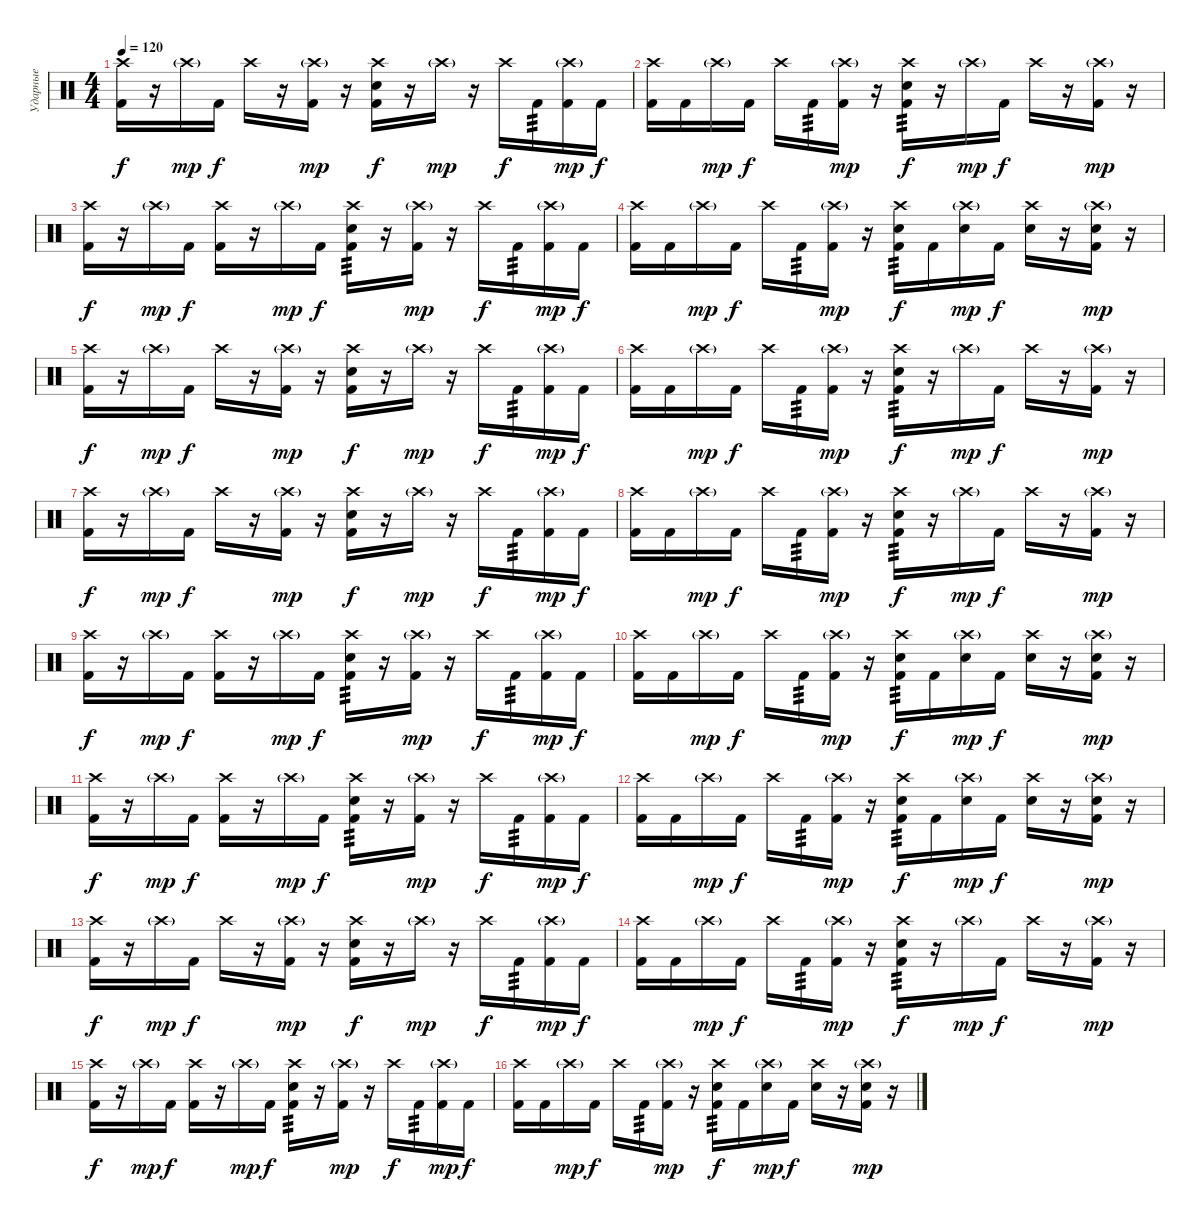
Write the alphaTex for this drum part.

\track ("Ударные" "Ударные") {instrument percussion}
\staff {score}
\articulation defaults
\ts (4 4)
\tempo 120
\clef neutral
\ks c
("Crash high (hit)" "Kick (hit) 2").16{dy f} r.16 "Crash high (hit)"{g}.16{dy mp} "Kick (hit) 2".16{dy f} "Crash high (hit)".16 r.16 ("Crash high (hit)"{g} "Kick (hit) 2").16{dy mp} r.16 ("Crash high (hit)" "Snare (hit) 2" "Kick (hit) 2").16{dy f} r.16 "Crash high (hit)"{g}.16{dy mp} r.16 "Crash high (hit)".16{dy f} "Kick (hit) 2".16{tp 3} ("Crash high (hit)"{g} "Kick (hit) 2").16{dy mp} "Kick (hit) 2".16{dy f} |
("Crash high (hit)" "Kick (hit) 2").16 "Kick (hit) 2".16 "Crash high (hit)"{g}.16{dy mp} "Kick (hit) 2".16{dy f} "Crash high (hit)".16 "Kick (hit) 2".16{tp 3} ("Crash high (hit)"{g} "Kick (hit) 2").16{dy mp} r.16 ("Crash high (hit)" "Snare (hit) 2" "Kick (hit) 2").16{tp 3 dy f} r.16 "Crash high (hit)"{g}.16{dy mp} "Kick (hit) 2".16{dy f} "Crash high (hit)".16 r.16 ("Crash high (hit)"{g} "Kick (hit) 2").16{dy mp} r.16 |
("Crash high (hit)" "Kick (hit) 2").16{dy f} r.16 "Crash high (hit)"{g}.16{dy mp} "Kick (hit) 2".16{dy f} ("Crash high (hit)" "Kick (hit) 2").16 r.16 "Crash high (hit)"{g}.16{dy mp} "Kick (hit) 2".16{dy f} ("Crash high (hit)" "Snare (hit) 2" "Kick (hit) 2").16{tp 3} r.16 ("Crash high (hit)"{g} "Kick (hit) 2").16{dy mp} r.16 "Crash high (hit)".16{dy f} "Kick (hit) 2".16{tp 3} ("Crash high (hit)"{g} "Kick (hit) 2").16{dy mp} "Kick (hit) 2".16{dy f} |
("Crash high (hit)" "Kick (hit) 2").16 "Kick (hit) 2".16 "Crash high (hit)"{g}.16{dy mp} "Kick (hit) 2".16{dy f} "Crash high (hit)".16 "Kick (hit) 2".16{tp 3} ("Crash high (hit)"{g} "Kick (hit) 2").16{dy mp} r.16 ("Crash high (hit)" "Snare (hit) 2" "Kick (hit) 2").16{tp 3 dy f} "Kick (hit) 2".16 ("Crash high (hit)"{g} "Snare (hit) 2").16{dy mp} "Kick (hit) 2".16{dy f} ("Crash high (hit)" "Snare (hit) 2").16 r.16 ("Crash high (hit)"{g} "Snare (hit) 2" "Kick (hit) 2").16{dy mp} r.16 |
("Crash high (hit)" "Kick (hit) 2").16{dy f} r.16 "Crash high (hit)"{g}.16{dy mp} "Kick (hit) 2".16{dy f} "Crash high (hit)".16 r.16 ("Crash high (hit)"{g} "Kick (hit) 2").16{dy mp} r.16 ("Crash high (hit)" "Snare (hit) 2" "Kick (hit) 2").16{dy f} r.16 "Crash high (hit)"{g}.16{dy mp} r.16 "Crash high (hit)".16{dy f} "Kick (hit) 2".16{tp 3} ("Crash high (hit)"{g} "Kick (hit) 2").16{dy mp} "Kick (hit) 2".16{dy f} |
("Crash high (hit)" "Kick (hit) 2").16 "Kick (hit) 2".16 "Crash high (hit)"{g}.16{dy mp} "Kick (hit) 2".16{dy f} "Crash high (hit)".16 "Kick (hit) 2".16{tp 3} ("Crash high (hit)"{g} "Kick (hit) 2").16{dy mp} r.16 ("Crash high (hit)" "Snare (hit) 2" "Kick (hit) 2").16{tp 3 dy f} r.16 "Crash high (hit)"{g}.16{dy mp} "Kick (hit) 2".16{dy f} "Crash high (hit)".16 r.16 ("Crash high (hit)"{g} "Kick (hit) 2").16{dy mp} r.16 |
("Crash high (hit)" "Kick (hit) 2").16{dy f} r.16 "Crash high (hit)"{g}.16{dy mp} "Kick (hit) 2".16{dy f} "Crash high (hit)".16 r.16 ("Crash high (hit)"{g} "Kick (hit) 2").16{dy mp} r.16 ("Crash high (hit)" "Snare (hit) 2" "Kick (hit) 2").16{dy f} r.16 "Crash high (hit)"{g}.16{dy mp} r.16 "Crash high (hit)".16{dy f} "Kick (hit) 2".16{tp 3} ("Crash high (hit)"{g} "Kick (hit) 2").16{dy mp} "Kick (hit) 2".16{dy f} |
("Crash high (hit)" "Kick (hit) 2").16 "Kick (hit) 2".16 "Crash high (hit)"{g}.16{dy mp} "Kick (hit) 2".16{dy f} "Crash high (hit)".16 "Kick (hit) 2".16{tp 3} ("Crash high (hit)"{g} "Kick (hit) 2").16{dy mp} r.16 ("Crash high (hit)" "Snare (hit) 2" "Kick (hit) 2").16{tp 3 dy f} r.16 "Crash high (hit)"{g}.16{dy mp} "Kick (hit) 2".16{dy f} "Crash high (hit)".16 r.16 ("Crash high (hit)"{g} "Kick (hit) 2").16{dy mp} r.16 |
("Crash high (hit)" "Kick (hit) 2").16{dy f} r.16 "Crash high (hit)"{g}.16{dy mp} "Kick (hit) 2".16{dy f} ("Crash high (hit)" "Kick (hit) 2").16 r.16 "Crash high (hit)"{g}.16{dy mp} "Kick (hit) 2".16{dy f} ("Crash high (hit)" "Snare (hit) 2" "Kick (hit) 2").16{tp 3} r.16 ("Crash high (hit)"{g} "Kick (hit) 2").16{dy mp} r.16 "Crash high (hit)".16{dy f} "Kick (hit) 2".16{tp 3} ("Crash high (hit)"{g} "Kick (hit) 2").16{dy mp} "Kick (hit) 2".16{dy f} |
("Crash high (hit)" "Kick (hit) 2").16 "Kick (hit) 2".16 "Crash high (hit)"{g}.16{dy mp} "Kick (hit) 2".16{dy f} "Crash high (hit)".16 "Kick (hit) 2".16{tp 3} ("Crash high (hit)"{g} "Kick (hit) 2").16{dy mp} r.16 ("Crash high (hit)" "Snare (hit) 2" "Kick (hit) 2").16{tp 3 dy f} "Kick (hit) 2".16 ("Crash high (hit)"{g} "Snare (hit) 2").16{dy mp} "Kick (hit) 2".16{dy f} ("Crash high (hit)" "Snare (hit) 2").16 r.16 ("Crash high (hit)"{g} "Snare (hit) 2" "Kick (hit) 2").16{dy mp} r.16 |
("Crash high (hit)" "Kick (hit) 2").16{dy f} r.16 "Crash high (hit)"{g}.16{dy mp} "Kick (hit) 2".16{dy f} ("Crash high (hit)" "Kick (hit) 2").16 r.16 "Crash high (hit)"{g}.16{dy mp} "Kick (hit) 2".16{dy f} ("Crash high (hit)" "Snare (hit) 2" "Kick (hit) 2").16{tp 3} r.16 ("Crash high (hit)"{g} "Kick (hit) 2").16{dy mp} r.16 "Crash high (hit)".16{dy f} "Kick (hit) 2".16{tp 3} ("Crash high (hit)"{g} "Kick (hit) 2").16{dy mp} "Kick (hit) 2".16{dy f} |
("Crash high (hit)" "Kick (hit) 2").16 "Kick (hit) 2".16 "Crash high (hit)"{g}.16{dy mp} "Kick (hit) 2".16{dy f} "Crash high (hit)".16 "Kick (hit) 2".16{tp 3} ("Crash high (hit)"{g} "Kick (hit) 2").16{dy mp} r.16 ("Crash high (hit)" "Snare (hit) 2" "Kick (hit) 2").16{tp 3 dy f} "Kick (hit) 2".16 ("Crash high (hit)"{g} "Snare (hit) 2").16{dy mp} "Kick (hit) 2".16{dy f} ("Crash high (hit)" "Snare (hit) 2").16 r.16 ("Crash high (hit)"{g} "Snare (hit) 2" "Kick (hit) 2").16{dy mp} r.16 |
("Crash high (hit)" "Kick (hit) 2").16{dy f} r.16 "Crash high (hit)"{g}.16{dy mp} "Kick (hit) 2".16{dy f} "Crash high (hit)".16 r.16 ("Crash high (hit)"{g} "Kick (hit) 2").16{dy mp} r.16 ("Crash high (hit)" "Snare (hit) 2" "Kick (hit) 2").16{dy f} r.16 "Crash high (hit)"{g}.16{dy mp} r.16 "Crash high (hit)".16{dy f} "Kick (hit) 2".16{tp 3} ("Crash high (hit)"{g} "Kick (hit) 2").16{dy mp} "Kick (hit) 2".16{dy f} |
("Crash high (hit)" "Kick (hit) 2").16 "Kick (hit) 2".16 "Crash high (hit)"{g}.16{dy mp} "Kick (hit) 2".16{dy f} "Crash high (hit)".16 "Kick (hit) 2".16{tp 3} ("Crash high (hit)"{g} "Kick (hit) 2").16{dy mp} r.16 ("Crash high (hit)" "Snare (hit) 2" "Kick (hit) 2").16{tp 3 dy f} r.16 "Crash high (hit)"{g}.16{dy mp} "Kick (hit) 2".16{dy f} "Crash high (hit)".16 r.16 ("Crash high (hit)"{g} "Kick (hit) 2").16{dy mp} r.16 |
("Crash high (hit)" "Kick (hit) 2").16{dy f} r.16 "Crash high (hit)"{g}.16{dy mp} "Kick (hit) 2".16{dy f} ("Crash high (hit)" "Kick (hit) 2").16 r.16 "Crash high (hit)"{g}.16{dy mp} "Kick (hit) 2".16{dy f} ("Crash high (hit)" "Snare (hit) 2" "Kick (hit) 2").16{tp 3} r.16 ("Crash high (hit)"{g} "Kick (hit) 2").16{dy mp} r.16 "Crash high (hit)".16{dy f} "Kick (hit) 2".16{tp 3} ("Crash high (hit)"{g} "Kick (hit) 2").16{dy mp} "Kick (hit) 2".16{dy f} |
("Crash high (hit)" "Kick (hit) 2").16 "Kick (hit) 2".16 "Crash high (hit)"{g}.16{dy mp} "Kick (hit) 2".16{dy f} "Crash high (hit)".16 "Kick (hit) 2".16{tp 3} ("Crash high (hit)"{g} "Kick (hit) 2").16{dy mp} r.16 ("Crash high (hit)" "Snare (hit) 2" "Kick (hit) 2").16{tp 3 dy f} "Kick (hit) 2".16 ("Crash high (hit)"{g} "Snare (hit) 2").16{dy mp} "Kick (hit) 2".16{dy f} ("Crash high (hit)" "Snare (hit) 2").16 r.16 ("Crash high (hit)"{g} "Snare (hit) 2" "Kick (hit) 2").16{dy mp} r.16
